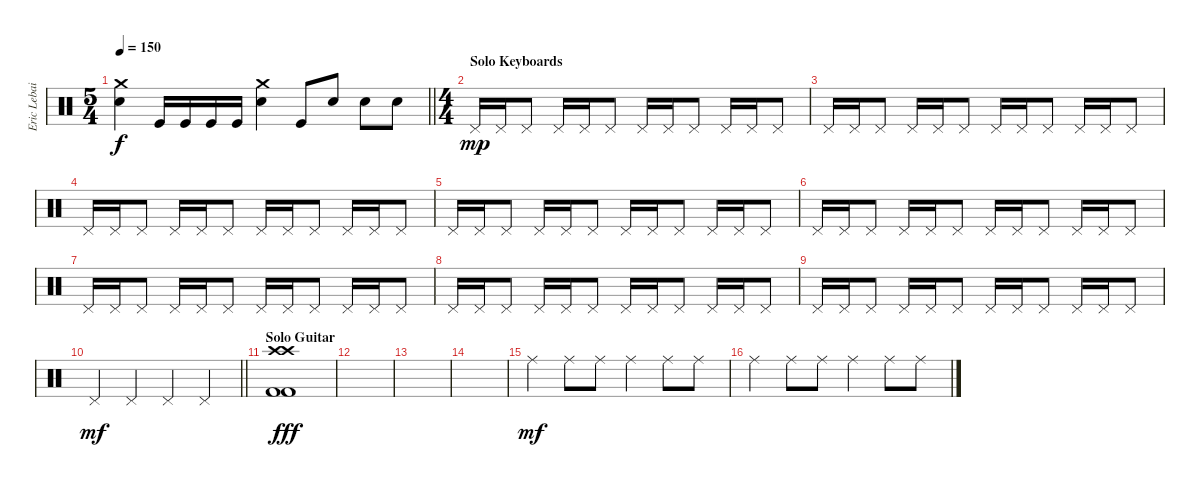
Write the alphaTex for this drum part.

\track ("Eric Lebailly - Drums" "Eric Lebai") {instrument percussion}
\staff {score}
\articulation defaults
\ts (5 4)
\tempo 150
\clef neutral
\barLineRight lightlight
\ks c
("Crash medium (hit)" "Snare (hit) 2").4{dy f} "Kick (hit)".16 "Kick (hit)".16 "Kick (hit)".16 "Kick (hit)".16 ("Crash medium (hit)" "Snare (hit) 2").4 "Kick (hit)".8 "Snare (hit) 2".8 "Snare (hit) 2".8 "Snare (hit) 2".8 |
\ts (4 4)
\section ("" "Solo Keyboards")
"Pedal Hi-Hat (hit)".16{dy mp} "Pedal Hi-Hat (hit)".16 "Pedal Hi-Hat (hit)".8 "Pedal Hi-Hat (hit)".16 "Pedal Hi-Hat (hit)".16 "Pedal Hi-Hat (hit)".8 "Pedal Hi-Hat (hit)".16 "Pedal Hi-Hat (hit)".16 "Pedal Hi-Hat (hit)".8 "Pedal Hi-Hat (hit)".16 "Pedal Hi-Hat (hit)".16 "Pedal Hi-Hat (hit)".8 |
"Pedal Hi-Hat (hit)".16 "Pedal Hi-Hat (hit)".16 "Pedal Hi-Hat (hit)".8 "Pedal Hi-Hat (hit)".16 "Pedal Hi-Hat (hit)".16 "Pedal Hi-Hat (hit)".8 "Pedal Hi-Hat (hit)".16 "Pedal Hi-Hat (hit)".16 "Pedal Hi-Hat (hit)".8 "Pedal Hi-Hat (hit)".16 "Pedal Hi-Hat (hit)".16 "Pedal Hi-Hat (hit)".8 |
"Pedal Hi-Hat (hit)".16 "Pedal Hi-Hat (hit)".16 "Pedal Hi-Hat (hit)".8 "Pedal Hi-Hat (hit)".16 "Pedal Hi-Hat (hit)".16 "Pedal Hi-Hat (hit)".8 "Pedal Hi-Hat (hit)".16 "Pedal Hi-Hat (hit)".16 "Pedal Hi-Hat (hit)".8 "Pedal Hi-Hat (hit)".16 "Pedal Hi-Hat (hit)".16 "Pedal Hi-Hat (hit)".8 |
"Pedal Hi-Hat (hit)".16 "Pedal Hi-Hat (hit)".16 "Pedal Hi-Hat (hit)".8 "Pedal Hi-Hat (hit)".16 "Pedal Hi-Hat (hit)".16 "Pedal Hi-Hat (hit)".8 "Pedal Hi-Hat (hit)".16 "Pedal Hi-Hat (hit)".16 "Pedal Hi-Hat (hit)".8 "Pedal Hi-Hat (hit)".16 "Pedal Hi-Hat (hit)".16 "Pedal Hi-Hat (hit)".8 |
"Pedal Hi-Hat (hit)".16 "Pedal Hi-Hat (hit)".16 "Pedal Hi-Hat (hit)".8 "Pedal Hi-Hat (hit)".16 "Pedal Hi-Hat (hit)".16 "Pedal Hi-Hat (hit)".8 "Pedal Hi-Hat (hit)".16 "Pedal Hi-Hat (hit)".16 "Pedal Hi-Hat (hit)".8 "Pedal Hi-Hat (hit)".16 "Pedal Hi-Hat (hit)".16 "Pedal Hi-Hat (hit)".8 |
"Pedal Hi-Hat (hit)".16 "Pedal Hi-Hat (hit)".16 "Pedal Hi-Hat (hit)".8 "Pedal Hi-Hat (hit)".16 "Pedal Hi-Hat (hit)".16 "Pedal Hi-Hat (hit)".8 "Pedal Hi-Hat (hit)".16 "Pedal Hi-Hat (hit)".16 "Pedal Hi-Hat (hit)".8 "Pedal Hi-Hat (hit)".16 "Pedal Hi-Hat (hit)".16 "Pedal Hi-Hat (hit)".8 |
"Pedal Hi-Hat (hit)".16 "Pedal Hi-Hat (hit)".16 "Pedal Hi-Hat (hit)".8 "Pedal Hi-Hat (hit)".16 "Pedal Hi-Hat (hit)".16 "Pedal Hi-Hat (hit)".8 "Pedal Hi-Hat (hit)".16 "Pedal Hi-Hat (hit)".16 "Pedal Hi-Hat (hit)".8 "Pedal Hi-Hat (hit)".16 "Pedal Hi-Hat (hit)".16 "Pedal Hi-Hat (hit)".8 |
"Pedal Hi-Hat (hit)".16 "Pedal Hi-Hat (hit)".16 "Pedal Hi-Hat (hit)".8 "Pedal Hi-Hat (hit)".16 "Pedal Hi-Hat (hit)".16 "Pedal Hi-Hat (hit)".8 "Pedal Hi-Hat (hit)".16 "Pedal Hi-Hat (hit)".16 "Pedal Hi-Hat (hit)".8 "Pedal Hi-Hat (hit)".16 "Pedal Hi-Hat (hit)".16 "Pedal Hi-Hat (hit)".8 |
\barLineRight lightlight "Pedal Hi-Hat (hit)".4{dy mf} "Pedal Hi-Hat (hit)".4 "Pedal Hi-Hat (hit)".4 "Pedal Hi-Hat (hit)".4
|
\section ("" "Solo Guitar")
("Crash high (hit)" "Crash high (hit)" "Kick (hit) 2" "Kick (hit) 2").1{dy fff} |
|
|
|
"Ride (middle)".4{dy mf} "Ride (middle)".8 "Ride (middle)".8 "Ride (middle)".4 "Ride (middle)".8 "Ride (middle)".8 |
"Ride (middle)".4 "Ride (middle)".8 "Ride (middle)".8 "Ride (middle)".4 "Ride (middle)".8 "Ride (middle)".8
